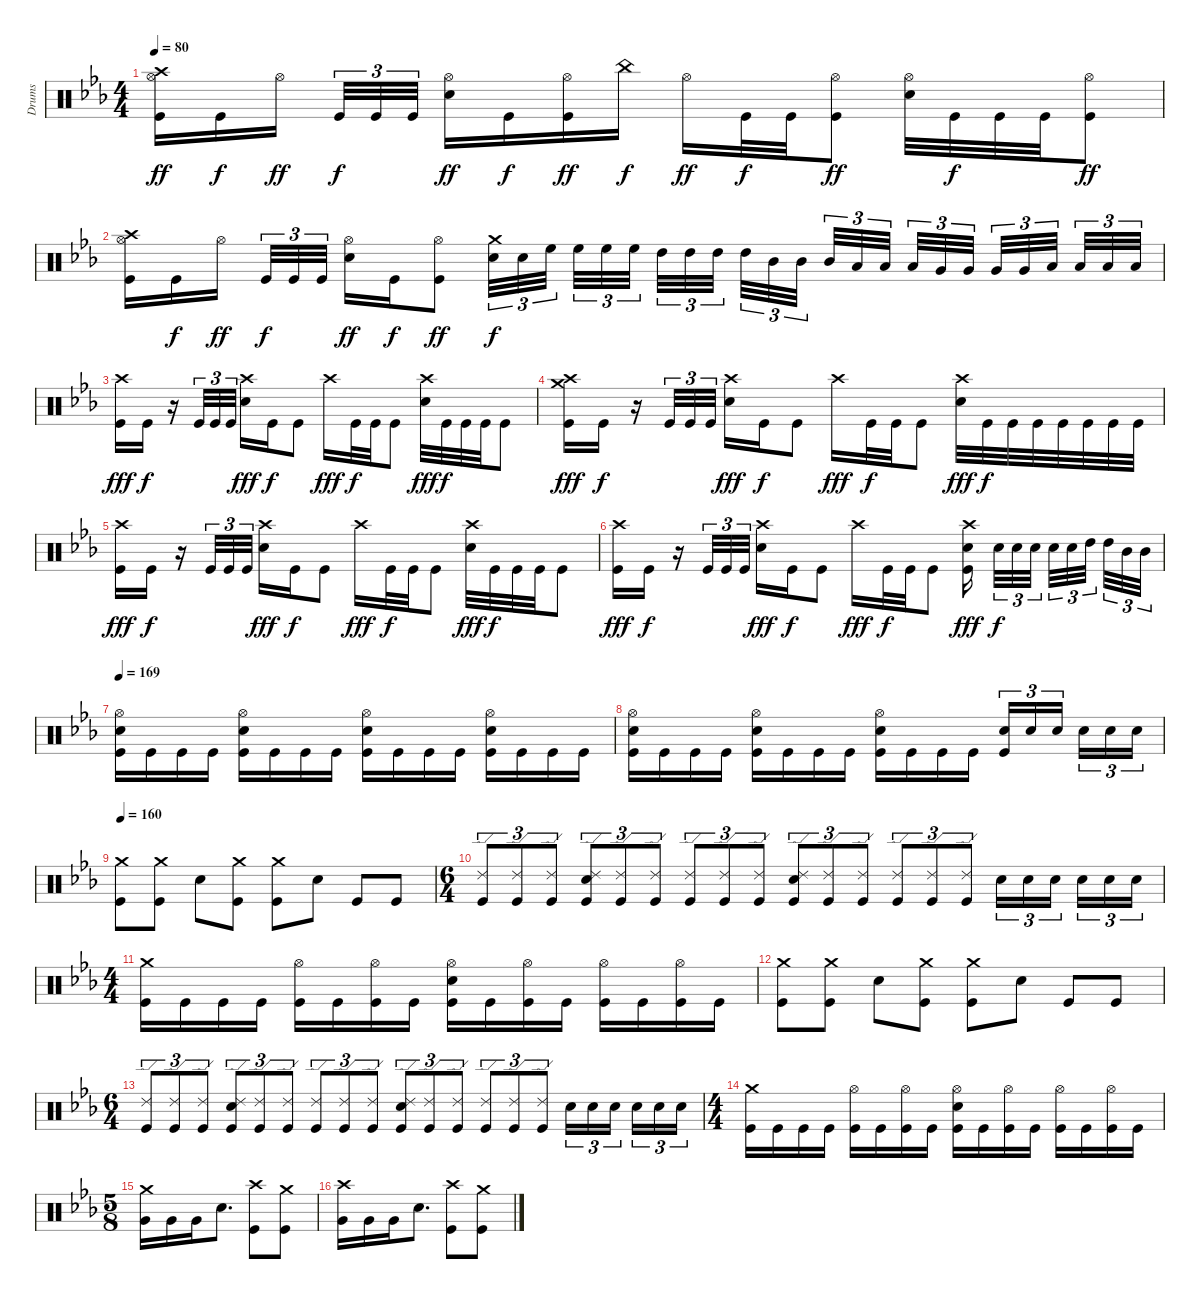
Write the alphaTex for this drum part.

\track ("Drums" "Drums") {instrument percussion}
\staff {score}
\articulation defaults
\ts (4 4)
\tempo 80
\clef neutral
\ks cminor
("Crash high (hit)" "Hi-Hat (open)" "Kick (hit)").16{dy ff} "Kick (hit)".16{dy f} "Hi-Hat (open)".16{dy ff beam splitsecondary} "Kick (hit)".32{tu (3 2) dy f} "Kick (hit)".32{tu (3 2)} "Kick (hit)".32{tu (3 2)} ("Hi-Hat (open)" "Electric Snare (hit)").16{dy ff} "Kick (hit)".16{dy f} ("Hi-Hat (open)" "Kick (hit)").16{dy ff} "China (hit)".16{dy f} "Hi-Hat (open)".16{dy ff} "Kick (hit)".32{dy f} "Kick (hit)".32 ("Hi-Hat (open)" "Kick (hit)").8{dy ff} ("Hi-Hat (open)" "Electric Snare (hit)").32 "Kick (hit)".32{dy f} "Kick (hit)".32 "Kick (hit)".32 ("Hi-Hat (open)" "Kick (hit)").8{dy ff} |
("Crash high (hit)" "Hi-Hat (open)" "Kick (hit)").16 "Kick (hit)".16{dy f} "Hi-Hat (open)".16{dy ff beam splitsecondary} "Kick (hit)".32{tu (3 2) dy f} "Kick (hit)".32{tu (3 2)} "Kick (hit)".32{tu (3 2)} ("Hi-Hat (open)" "Electric Snare (hit)").16{dy ff} "Kick (hit)".16{dy f} ("Hi-Hat (open)" "Kick (hit)").8{dy ff} ("Crash medium (hit)" "Electric Snare (hit)").32{tu (3 2) dy f} "Electric Snare (hit)".32{tu (3 2)} "High Floor Tom (hit)".32{tu (3 2) beam splitsecondary} "High Floor Tom (hit)".32{tu (3 2)} "High Floor Tom (hit)".32{tu (3 2)} "High Floor Tom (hit)".32{tu (3 2) beam splitsecondary} "High Tom (hit)".32{tu (3 2)} "High Tom (hit)".32{tu (3 2)} "High Tom (hit)".32{tu (3 2) beam splitsecondary} "High Tom (hit)".32{tu (3 2)} "Mid Tom (hit)".32{tu (3 2)} "Mid Tom (hit)".32{tu (3 2)} "Mid Tom (hit)".32{tu (3 2)} "Low Tom (hit)".32{tu (3 2)} "Low Tom (hit)".32{tu (3 2) beam splitsecondary} "Low Tom (hit)".32{tu (3 2)} "Very Low Tom (hit)".32{tu (3 2)} "Very Low Tom (hit)".32{tu (3 2) beam splitsecondary} "Very Low Tom (hit)".32{tu (3 2)} "Very Low Tom (hit)".32{tu (3 2)} "Low Floor Tom (hit)".32{tu (3 2) beam splitsecondary} "Low Floor Tom (hit)".32{tu (3 2)} "Low Floor Tom (hit)".32{tu (3 2)} "Low Floor Tom (hit)".32{tu (3 2)} |
("Crash high (hit)" "Kick (hit)").16{dy fff} "Kick (hit)".16{dy f} r.16 "Kick (hit)".32{tu (3 2)} "Kick (hit)".32{tu (3 2)} "Kick (hit)".32{tu (3 2)} ("Crash high (hit)" "Electric Snare (hit)").16{dy fff} "Kick (hit)".16{dy f} "Kick (hit)".8 "Crash high (hit)".16{dy fff} "Kick (hit)".32{dy f} "Kick (hit)".32 "Kick (hit)".8 ("Crash high (hit)" "Electric Snare (hit)").32{dy fff} "Kick (hit)".32{dy f} "Kick (hit)".32 "Kick (hit)".32 "Kick (hit)".8 |
("Crash high (hit)" "Crash medium (hit)" "Kick (hit)").16{dy fff} "Kick (hit)".16{dy f} r.16 "Kick (hit)".32{tu (3 2)} "Kick (hit)".32{tu (3 2)} "Kick (hit)".32{tu (3 2)} ("Crash high (hit)" "Electric Snare (hit)").16{dy fff} "Kick (hit)".16{dy f} "Kick (hit)".8 "Crash high (hit)".16{dy fff} "Kick (hit)".32{dy f} "Kick (hit)".32 "Kick (hit)".8 ("Crash high (hit)" "Electric Snare (hit)").32{dy fff} "Kick (hit)".32{dy f} "Kick (hit)".32 "Kick (hit)".32 "Kick (hit)".32 "Kick (hit)".32 "Kick (hit)".32 "Kick (hit)".32 |
("Crash high (hit)" "Kick (hit)").16{dy fff} "Kick (hit)".16{dy f} r.16 "Kick (hit)".32{tu (3 2)} "Kick (hit)".32{tu (3 2)} "Kick (hit)".32{tu (3 2)} ("Crash high (hit)" "Electric Snare (hit)").16{dy fff} "Kick (hit)".16{dy f} "Kick (hit)".8 "Crash high (hit)".16{dy fff} "Kick (hit)".32{dy f} "Kick (hit)".32 "Kick (hit)".8 ("Crash high (hit)" "Electric Snare (hit)").32{dy fff} "Kick (hit)".32{dy f} "Kick (hit)".32 "Kick (hit)".32 "Kick (hit)".8 |
("Crash high (hit)" "Kick (hit)").16{dy fff} "Kick (hit)".16{dy f} r.16 "Kick (hit)".32{tu (3 2)} "Kick (hit)".32{tu (3 2)} "Kick (hit)".32{tu (3 2)} ("Crash high (hit)" "Electric Snare (hit)").16{dy fff} "Kick (hit)".16{dy f} "Kick (hit)".8 "Crash high (hit)".16{dy fff} "Kick (hit)".32{dy f} "Kick (hit)".32 "Kick (hit)".8 ("Crash high (hit)" "Electric Snare (hit)" "Kick (hit)").16{dy fff beam splitsecondary} "Electric Snare (hit)".32{tu (3 2) dy f} "Electric Snare (hit)".32{tu (3 2)} "Electric Snare (hit)".32{tu (3 2) beam splitsecondary} "Electric Snare (hit)".32{tu (3 2)} "Electric Snare (hit)".32{tu (3 2)} "High Tom (hit)".32{tu (3 2) beam splitsecondary} "High Tom (hit)".32{tu (3 2)} "Mid Tom (hit)".32{tu (3 2)} "Mid Tom (hit)".32{tu (3 2)} |
\tempo 169
("Hi-Hat (open)" "Electric Snare (hit)" "Kick (hit)").16 "Kick (hit)".16 "Kick (hit)".16 "Kick (hit)".16 ("Hi-Hat (open)" "Electric Snare (hit)" "Kick (hit)").16 "Kick (hit)".16 "Kick (hit)".16 "Kick (hit)".16 ("Hi-Hat (open)" "Electric Snare (hit)" "Kick (hit)").16 "Kick (hit)".16 "Kick (hit)".16 "Kick (hit)".16 ("Hi-Hat (open)" "Electric Snare (hit)" "Kick (hit)").16 "Kick (hit)".16 "Kick (hit)".16 "Kick (hit)".16 |
("Hi-Hat (open)" "Electric Snare (hit)" "Kick (hit)").16 "Kick (hit)".16 "Kick (hit)".16 "Kick (hit)".16 ("Hi-Hat (open)" "Electric Snare (hit)" "Kick (hit)").16 "Kick (hit)".16 "Kick (hit)".16 "Kick (hit)".16 ("Hi-Hat (open)" "Electric Snare (hit)" "Kick (hit)").16 "Kick (hit)".16 "Kick (hit)".16 "Kick (hit)".16 ("Electric Snare (hit)" "Kick (hit)").16{tu (3 2)} "Electric Snare (hit)".16{tu (3 2)} "Electric Snare (hit)".16{tu (3 2) beam splitsecondary} "Electric Snare (hit)".16{tu (3 2)} "Electric Snare (hit)".16{tu (3 2)} "Electric Snare (hit)".16{tu (3 2)} |
\tempo 160
("Crash medium (hit)" "Kick (hit)").8 ("Crash medium (hit)" "Kick (hit)").8 "Electric Snare (hit)".8 ("Crash medium (hit)" "Kick (hit)").8 ("Crash medium (hit)" "Kick (hit)").8 "Electric Snare (hit)".8 "Kick (hit)".8 "Kick (hit)".8 |
\ts (6 4)
("Ride (edge) 2" "Kick (hit)").8{tu (3 2)} ("Ride (edge) 2" "Kick (hit)").8{tu (3 2)} ("Ride (edge) 2" "Kick (hit)").8{tu (3 2)} ("Ride (edge) 2" "Electric Snare (hit)" "Kick (hit)").8{tu (3 2)} ("Ride (edge) 2" "Kick (hit)").8{tu (3 2)} ("Ride (edge) 2" "Kick (hit)").8{tu (3 2)} ("Ride (edge) 2" "Kick (hit)").8{tu (3 2)} ("Ride (edge) 2" "Kick (hit)").8{tu (3 2)} ("Ride (edge) 2" "Kick (hit)").8{tu (3 2)} ("Ride (edge) 2" "Electric Snare (hit)" "Kick (hit)").8{tu (3 2)} ("Ride (edge) 2" "Kick (hit)").8{tu (3 2)} ("Ride (edge) 2" "Kick (hit)").8{tu (3 2)} ("Ride (edge) 2" "Kick (hit)").8{tu (3 2)} ("Ride (edge) 2" "Kick (hit)").8{tu (3 2)} ("Ride (edge) 2" "Kick (hit)").8{tu (3 2)} "Electric Snare (hit)".16{tu (3 2)} "Electric Snare (hit)".16{tu (3 2)} "Electric Snare (hit)".16{tu (3 2) beam splitsecondary} "Electric Snare (hit)".16{tu (3 2)} "Electric Snare (hit)".16{tu (3 2)} "Electric Snare (hit)".16{tu (3 2)} |
\ts (4 4)
("Crash medium (hit)" "Kick (hit)").16 "Kick (hit)".16 "Kick (hit)".16 "Kick (hit)".16 ("Hi-Hat (open)" "Kick (hit)").16 "Kick (hit)".16 ("Hi-Hat (open)" "Kick (hit)").16 "Kick (hit)".16 ("Hi-Hat (open)" "Electric Snare (hit)" "Kick (hit)").16 "Kick (hit)".16 ("Hi-Hat (open)" "Kick (hit)").16 "Kick (hit)".16 ("Hi-Hat (open)" "Kick (hit)").16 "Kick (hit)".16 ("Hi-Hat (open)" "Kick (hit)").16 "Kick (hit)".16 |
("Crash medium (hit)" "Kick (hit)").8 ("Crash medium (hit)" "Kick (hit)").8 "Electric Snare (hit)".8 ("Crash medium (hit)" "Kick (hit)").8 ("Crash medium (hit)" "Kick (hit)").8 "Electric Snare (hit)".8 "Kick (hit)".8 "Kick (hit)".8 |
\ts (6 4)
("Ride (edge) 2" "Kick (hit)").8{tu (3 2)} ("Ride (edge) 2" "Kick (hit)").8{tu (3 2)} ("Ride (edge) 2" "Kick (hit)").8{tu (3 2)} ("Ride (edge) 2" "Electric Snare (hit)" "Kick (hit)").8{tu (3 2)} ("Ride (edge) 2" "Kick (hit)").8{tu (3 2)} ("Ride (edge) 2" "Kick (hit)").8{tu (3 2)} ("Ride (edge) 2" "Kick (hit)").8{tu (3 2)} ("Ride (edge) 2" "Kick (hit)").8{tu (3 2)} ("Ride (edge) 2" "Kick (hit)").8{tu (3 2)} ("Ride (edge) 2" "Electric Snare (hit)" "Kick (hit)").8{tu (3 2)} ("Ride (edge) 2" "Kick (hit)").8{tu (3 2)} ("Ride (edge) 2" "Kick (hit)").8{tu (3 2)} ("Ride (edge) 2" "Kick (hit)").8{tu (3 2)} ("Ride (edge) 2" "Kick (hit)").8{tu (3 2)} ("Ride (edge) 2" "Kick (hit)").8{tu (3 2)} "Electric Snare (hit)".16{tu (3 2)} "Electric Snare (hit)".16{tu (3 2)} "Electric Snare (hit)".16{tu (3 2) beam splitsecondary} "Electric Snare (hit)".16{tu (3 2)} "Electric Snare (hit)".16{tu (3 2)} "Electric Snare (hit)".16{tu (3 2)} |
\ts (4 4)
("Crash medium (hit)" "Kick (hit)").16 "Kick (hit)".16 "Kick (hit)".16 "Kick (hit)".16 ("Hi-Hat (open)" "Kick (hit)").16 "Kick (hit)".16 ("Hi-Hat (open)" "Kick (hit)").16 "Kick (hit)".16 ("Hi-Hat (open)" "Electric Snare (hit)" "Kick (hit)").16 "Kick (hit)".16 ("Hi-Hat (open)" "Kick (hit)").16 "Kick (hit)".16 ("Hi-Hat (open)" "Kick (hit)").16 "Kick (hit)".16 ("Hi-Hat (open)" "Kick (hit)").16 "Kick (hit)".16 |
\ts (5 8)
("Crash medium (hit)" "Very Low Tom (hit)").16 "Very Low Tom (hit)".16 "Very Low Tom (hit)".16 "Electric Snare (hit)".8{d} ("Crash high (hit)" "Kick (hit)").8 ("Crash medium (hit)" "Kick (hit)").8 |
("Crash high (hit)" "Very Low Tom (hit)").16 "Very Low Tom (hit)".16 "Very Low Tom (hit)".16 "Electric Snare (hit)".8{d} ("Crash high (hit)" "Kick (hit)").8 ("Crash medium (hit)" "Kick (hit)").8
